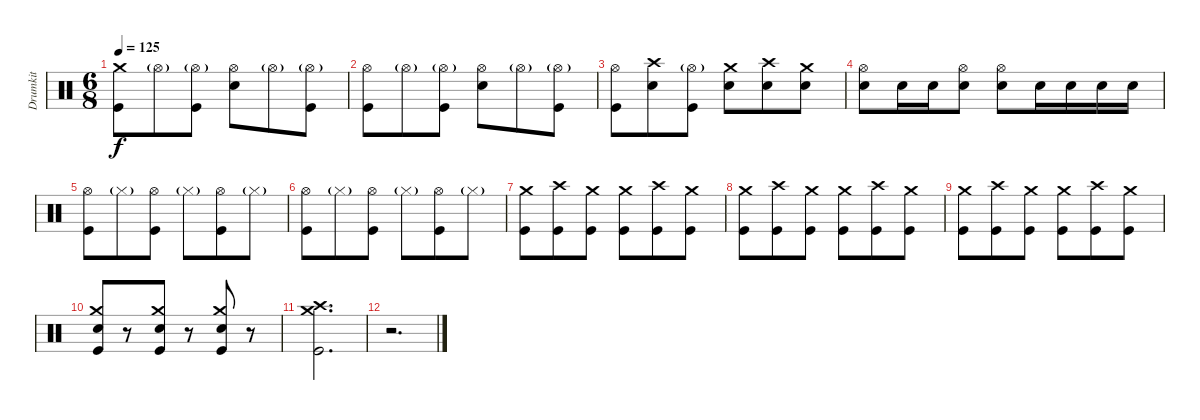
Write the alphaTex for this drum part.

\track ("Drumkit" "Drumkit") {instrument percussion}
\staff {score}
\articulation defaults
\ts (6 8)
\tempo 125
\clef neutral
\ks c
("Kick (hit)" "Crash medium (hit)").8{dy f} "Hi-Hat (open)"{g}.8 ("Kick (hit)" "Hi-Hat (open)"{g}).8 ("Snare (hit) 2" "Hi-Hat (open)").8 "Hi-Hat (open)"{g}.8 ("Hi-Hat (open)"{g} "Kick (hit)").8 |
("Kick (hit)" "Hi-Hat (open)").8 "Hi-Hat (open)"{g}.8 ("Kick (hit)" "Hi-Hat (open)"{g}).8 ("Snare (hit) 2" "Hi-Hat (open)").8 "Hi-Hat (open)"{g}.8 ("Hi-Hat (open)"{g} "Kick (hit)").8 |
("Kick (hit)" "Hi-Hat (open)").8 ("Snare (hit) 2" "Crash high (hit)").8 ("Kick (hit)" "Hi-Hat (open)"{g}).8 ("Snare (hit) 2" "Crash medium (hit)").8 ("Snare (hit) 2" "Crash high (hit)").8 ("Snare (hit) 2" "Crash medium (hit)").8 |
("Snare (hit) 2" "Hi-Hat (open)").8 "Snare (hit) 2".16 "Snare (hit) 2".16 ("Snare (hit) 2" "Hi-Hat (open)").8 ("Snare (hit) 2" "Hi-Hat (open)").8 "Snare (hit) 2".16 "Snare (hit) 2".16 "Snare (hit) 2".16 "Snare (hit) 2".16 |
("Kick (hit)" "Hi-Hat (open)").8 "Hi-Hat (closed)"{g}.8 ("Kick (hit)" "Hi-Hat (open)").8 "Hi-Hat (closed)"{g}.8 ("Kick (hit)" "Hi-Hat (open)").8 "Hi-Hat (closed)"{g}.8 |
("Kick (hit)" "Hi-Hat (open)").8 "Hi-Hat (closed)"{g}.8 ("Kick (hit)" "Hi-Hat (open)").8 "Hi-Hat (closed)"{g}.8 ("Kick (hit)" "Hi-Hat (open)").8 "Hi-Hat (closed)"{g}.8 |
("Kick (hit)" "Crash medium (hit)").8 ("Kick (hit)" "Crash high (hit)").8 ("Kick (hit)" "Crash medium (hit)").8 ("Kick (hit)" "Crash medium (hit)").8 ("Kick (hit)" "Crash high (hit)").8 ("Kick (hit)" "Crash medium (hit)").8 |
("Kick (hit)" "Crash medium (hit)").8 ("Kick (hit)" "Crash high (hit)").8 ("Kick (hit)" "Crash medium (hit)").8 ("Kick (hit)" "Crash medium (hit)").8 ("Kick (hit)" "Crash high (hit)").8 ("Kick (hit)" "Crash medium (hit)").8 |
("Kick (hit)" "Crash medium (hit)").8 ("Kick (hit)" "Crash high (hit)").8 ("Kick (hit)" "Crash medium (hit)").8 ("Kick (hit)" "Crash medium (hit)").8 ("Kick (hit)" "Crash high (hit)").8 ("Kick (hit)" "Crash medium (hit)").8 |
("Kick (hit)" "Crash medium (hit)" "Snare (hit) 2").8 r.8 ("Kick (hit)" "Crash medium (hit)" "Snare (hit) 2").8 r.8 ("Kick (hit)" "Crash medium (hit)" "Snare (hit) 2").8 r.8 |
("Kick (hit)" "Crash medium (hit)" "Crash high (hit)").2{d} |
r.2{d}
